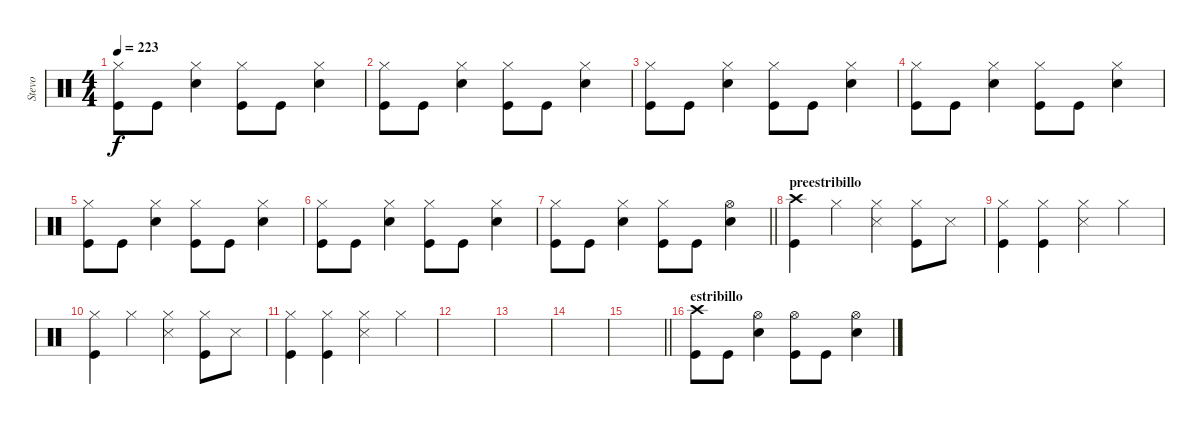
\track ("Stevo" "Stevo") {instrument percussion}
\staff {score}
\articulation defaults
\ts (4 4)
\tempo 223
\clef neutral
\ks c
("Hi-Hat (closed)" "Kick (hit)").8{dy f} "Kick (hit)".8 ("Hi-Hat (closed)" "Electric Snare (hit)").4 ("Hi-Hat (closed)" "Kick (hit)").8 "Kick (hit)".8 ("Hi-Hat (closed)" "Electric Snare (hit)").4 |
("Hi-Hat (closed)" "Kick (hit)").8 "Kick (hit)".8 ("Hi-Hat (closed)" "Electric Snare (hit)").4 ("Hi-Hat (closed)" "Kick (hit)").8 "Kick (hit)".8 ("Hi-Hat (closed)" "Electric Snare (hit)").4 |
("Hi-Hat (closed)" "Kick (hit)").8 "Kick (hit)".8 ("Hi-Hat (closed)" "Electric Snare (hit)").4 ("Hi-Hat (closed)" "Kick (hit)").8 "Kick (hit)".8 ("Hi-Hat (closed)" "Electric Snare (hit)").4 |
("Hi-Hat (closed)" "Kick (hit)").8 "Kick (hit)".8 ("Hi-Hat (closed)" "Electric Snare (hit)").4 ("Hi-Hat (closed)" "Kick (hit)").8 "Kick (hit)".8 ("Hi-Hat (closed)" "Electric Snare (hit)").4 |
("Hi-Hat (closed)" "Kick (hit)").8 "Kick (hit)".8 ("Hi-Hat (closed)" "Electric Snare (hit)").4 ("Hi-Hat (closed)" "Kick (hit)").8 "Kick (hit)".8 ("Hi-Hat (closed)" "Electric Snare (hit)").4 |
("Hi-Hat (closed)" "Kick (hit)").8 "Kick (hit)".8 ("Hi-Hat (closed)" "Electric Snare (hit)").4 ("Hi-Hat (closed)" "Kick (hit)").8 "Kick (hit)".8 ("Hi-Hat (closed)" "Electric Snare (hit)").4 |
\barLineRight lightlight
("Hi-Hat (closed)" "Kick (hit)").8 "Kick (hit)".8 ("Hi-Hat (closed)" "Electric Snare (hit)").4 ("Hi-Hat (closed)" "Kick (hit)").8 "Kick (hit)".8 ("Hi-Hat (open)" "Electric Snare (hit)").4 |
\section ("" "preestribillo")
("Crash high (hit)" "Kick (hit)").4 "Hi-Hat (closed)".4 ("Hi-Hat (closed)" "Snare (side stick) 3").4 ("Hi-Hat (closed)" "Kick (hit)").8 "Snare (side stick) 3".8 |
("Hi-Hat (closed)" "Kick (hit)").4 ("Hi-Hat (closed)" "Kick (hit)").4 ("Hi-Hat (closed)" "Snare (side stick) 3").4 "Hi-Hat (closed)".4 |
("Hi-Hat (closed)" "Kick (hit)").4 "Hi-Hat (closed)".4 ("Hi-Hat (closed)" "Snare (side stick) 3").4 ("Hi-Hat (closed)" "Kick (hit)").8 "Snare (side stick) 3".8 |
("Hi-Hat (closed)" "Kick (hit)").4 ("Hi-Hat (closed)" "Kick (hit)").4 ("Hi-Hat (closed)" "Snare (side stick) 3").4 "Hi-Hat (closed)".4 |
|
|
|
\barLineRight lightlight
|
\section ("" "estribillo")
("Kick (hit)" "Crash high (hit)").8 "Kick (hit)".8 ("Electric Snare (hit)" "Hi-Hat (open)").4 ("Kick (hit)" "Hi-Hat (open)").8 "Kick (hit)".8 ("Electric Snare (hit)" "Hi-Hat (open)").4
